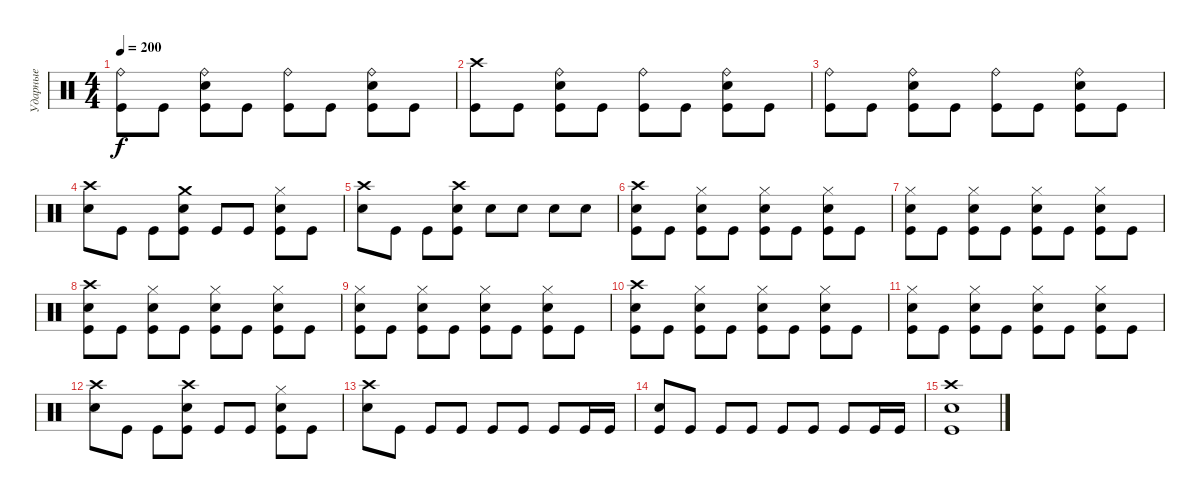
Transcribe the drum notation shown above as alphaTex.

\track ("Ударные" "Ударные") {instrument percussion}
\staff {score}
\articulation defaults
\ts (4 4)
\tempo 200
\clef neutral
\ks c
("Ride (bell)" "Kick (hit)").8{dy f} "Kick (hit)".8 ("Ride (bell)" "Electric Snare (hit)" "Kick (hit)").8 "Kick (hit)".8 ("Ride (bell)" "Kick (hit)").8 "Kick (hit)".8 ("Ride (bell)" "Electric Snare (hit)" "Kick (hit)").8 "Kick (hit)".8 |
("Crash high (hit)" "Kick (hit)").8 "Kick (hit)".8 ("Ride (bell)" "Electric Snare (hit)" "Kick (hit)").8 "Kick (hit)".8 ("Ride (bell)" "Kick (hit)").8 "Kick (hit)".8 ("Ride (bell)" "Electric Snare (hit)" "Kick (hit)").8 "Kick (hit)".8 |
("Ride (bell)" "Kick (hit)").8 "Kick (hit)".8 ("Ride (bell)" "Electric Snare (hit)" "Kick (hit)").8 "Kick (hit)".8 ("Ride (bell)" "Kick (hit)").8 "Kick (hit)".8 ("Ride (bell)" "Electric Snare (hit)" "Kick (hit)").8 "Kick (hit)".8 |
("Crash high (hit)" "Electric Snare (hit)").8 "Kick (hit)".8 "Kick (hit)".8 ("Crash medium (hit)" "Electric Snare (hit)" "Kick (hit)").8 "Kick (hit)".8 "Kick (hit)".8 ("Hi-Hat (closed)" "Electric Snare (hit)" "Kick (hit)").8 "Kick (hit)".8 |
("Crash high (hit)" "Electric Snare (hit)").8 "Kick (hit)".8 "Kick (hit)".8 ("Crash high (hit)" "Electric Snare (hit)" "Kick (hit)").8 "Electric Snare (hit)".8 "Electric Snare (hit)".8 "Electric Snare (hit)".8 "Electric Snare (hit)".8 |
("Crash high (hit)" "Electric Snare (hit)" "Kick (hit)").8 "Kick (hit)".8 ("Hi-Hat (closed)" "Electric Snare (hit)" "Kick (hit)").8 "Kick (hit)".8 ("Hi-Hat (closed)" "Electric Snare (hit)" "Kick (hit)").8 "Kick (hit)".8 ("Hi-Hat (closed)" "Electric Snare (hit)" "Kick (hit)").8 "Kick (hit)".8 |
("Hi-Hat (closed)" "Electric Snare (hit)" "Kick (hit)").8 "Kick (hit)".8 ("Hi-Hat (closed)" "Electric Snare (hit)" "Kick (hit)").8 "Kick (hit)".8 ("Hi-Hat (closed)" "Electric Snare (hit)" "Kick (hit)").8 "Kick (hit)".8 ("Hi-Hat (closed)" "Electric Snare (hit)" "Kick (hit)").8 "Kick (hit)".8 |
("Crash high (hit)" "Electric Snare (hit)" "Kick (hit)").8 "Kick (hit)".8 ("Hi-Hat (closed)" "Electric Snare (hit)" "Kick (hit)").8 "Kick (hit)".8 ("Hi-Hat (closed)" "Electric Snare (hit)" "Kick (hit)").8 "Kick (hit)".8 ("Hi-Hat (closed)" "Electric Snare (hit)" "Kick (hit)").8 "Kick (hit)".8 |
("Hi-Hat (closed)" "Electric Snare (hit)" "Kick (hit)").8 "Kick (hit)".8 ("Hi-Hat (closed)" "Electric Snare (hit)" "Kick (hit)").8 "Kick (hit)".8 ("Hi-Hat (closed)" "Electric Snare (hit)" "Kick (hit)").8 "Kick (hit)".8 ("Hi-Hat (closed)" "Electric Snare (hit)" "Kick (hit)").8 "Kick (hit)".8 |
("Crash high (hit)" "Electric Snare (hit)" "Kick (hit)").8 "Kick (hit)".8 ("Hi-Hat (closed)" "Electric Snare (hit)" "Kick (hit)").8 "Kick (hit)".8 ("Hi-Hat (closed)" "Electric Snare (hit)" "Kick (hit)").8 "Kick (hit)".8 ("Hi-Hat (closed)" "Electric Snare (hit)" "Kick (hit)").8 "Kick (hit)".8 |
("Hi-Hat (closed)" "Electric Snare (hit)" "Kick (hit)").8 "Kick (hit)".8 ("Hi-Hat (closed)" "Electric Snare (hit)" "Kick (hit)").8 "Kick (hit)".8 ("Hi-Hat (closed)" "Electric Snare (hit)" "Kick (hit)").8 "Kick (hit)".8 ("Hi-Hat (closed)" "Electric Snare (hit)" "Kick (hit)").8 "Kick (hit)".8 |
("Crash high (hit)" "Electric Snare (hit)").8 "Kick (hit)".8 "Kick (hit)".8 ("Crash high (hit)" "Electric Snare (hit)" "Kick (hit)").8 "Kick (hit)".8 "Kick (hit)".8 ("Hi-Hat (closed)" "Electric Snare (hit)" "Kick (hit)").8 "Kick (hit)".8 |
("Crash high (hit)" "Electric Snare (hit)").8 "Kick (hit)".8 "Kick (hit)".8 "Kick (hit)".8 "Kick (hit)".8 "Kick (hit)".8 "Kick (hit)".8 "Kick (hit)".16 "Kick (hit)".16 |
("Electric Snare (hit)" "Kick (hit)").8 "Kick (hit)".8 "Kick (hit)".8 "Kick (hit)".8 "Kick (hit)".8 "Kick (hit)".8 "Kick (hit)".8 "Kick (hit)".16 "Kick (hit)".16 |
("Crash high (hit)" "Electric Snare (hit)" "Kick (hit)").1
